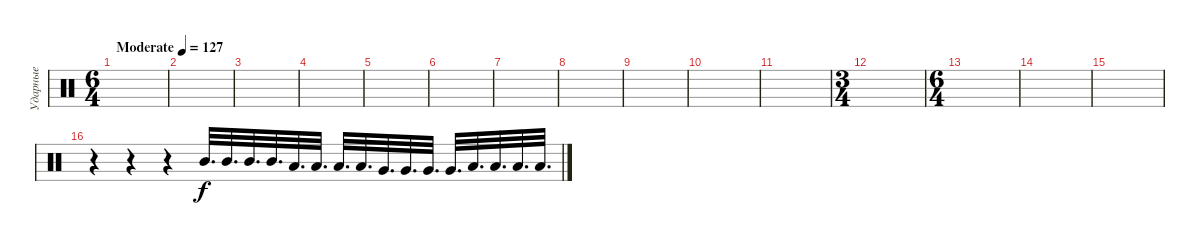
\track ("Ударные" "Ударные") {instrument percussion}
\staff {score}
\articulation defaults
\ts (6 4)
\tempo (127 "Moderate")
\clef neutral
\ks c
|
|
|
|
|
|
|
|
|
|
|
\ts (3 4)
|
\ts (6 4)
|
|
|
r.4 r.4 r.4 "Mid Tom (hit)".32{d} "Mid Tom (hit)".32{d} "Mid Tom (hit)".32{d} "Mid Tom (hit)".32{d} "Low Tom (hit)".32{d} "Low Tom (hit)".32{d} "Low Tom (hit)".32{d} "Low Tom (hit)".32{d} "Very Low Tom (hit)".32{d} "Very Low Tom (hit)".32{d} "Very Low Tom (hit)".32{d} "Very Low Tom (hit)".32{d} "Low Floor Tom (hit)".32{d} "Low Floor Tom (hit)".32{d} "Low Floor Tom (hit)".32{d} "Low Floor Tom (hit)".32{d}
